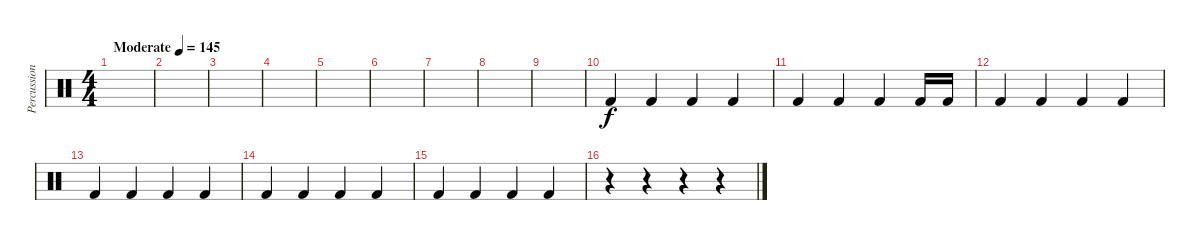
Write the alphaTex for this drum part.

\track ("Percussion" "Percussion") {instrument percussion}
\staff {score}
\articulation defaults
\ts (4 4)
\tempo (145 "Moderate")
\clef neutral
\ks c
|
|
|
|
|
|
|
|
|
"Kick (hit) 2".4 "Kick (hit) 2".4 "Kick (hit) 2".4 "Kick (hit) 2".4 |
"Kick (hit) 2".4 "Kick (hit) 2".4 "Kick (hit) 2".4 "Kick (hit) 2".16 "Kick (hit) 2".16 |
"Kick (hit) 2".4 "Kick (hit) 2".4 "Kick (hit) 2".4 "Kick (hit) 2".4 |
"Kick (hit) 2".4 "Kick (hit) 2".4 "Kick (hit) 2".4 "Kick (hit) 2".4 |
"Kick (hit) 2".4 "Kick (hit) 2".4 "Kick (hit) 2".4 "Kick (hit) 2".4 |
"Kick (hit) 2".4 "Kick (hit) 2".4 "Kick (hit) 2".4 "Kick (hit) 2".4 |
r.4 r.4 r.4 r.4
